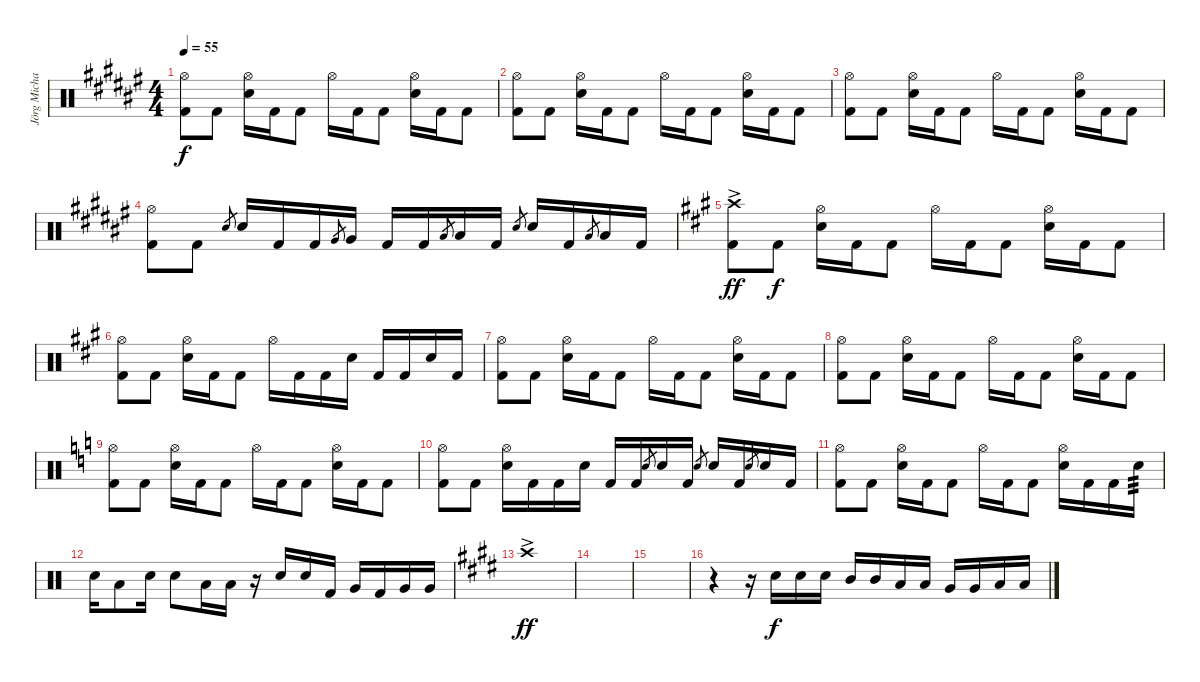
\track ("Jörg Michael" "Jörg Micha") {instrument percussion}
\staff {score}
\articulation defaults
\ts (4 4)
\tempo 55
\clef neutral
\ks f#
("Hi-Hat (open)" "Kick (hit) 2").8{dy f} "Kick (hit) 2".8 ("Hi-Hat (open)" "Electric Snare (hit)").16 "Kick (hit) 2".16 "Kick (hit) 2".8 "Hi-Hat (open)".16 "Kick (hit) 2".16 "Kick (hit) 2".8 ("Hi-Hat (open)" "Electric Snare (hit)").16 "Kick (hit) 2".16 "Kick (hit) 2".8 |
("Hi-Hat (open)" "Kick (hit) 2").8 "Kick (hit) 2".8 ("Hi-Hat (open)" "Electric Snare (hit)").16 "Kick (hit) 2".16 "Kick (hit) 2".8 "Hi-Hat (open)".16 "Kick (hit) 2".16 "Kick (hit) 2".8 ("Hi-Hat (open)" "Electric Snare (hit)").16 "Kick (hit) 2".16 "Kick (hit) 2".8 |
("Hi-Hat (open)" "Kick (hit) 2").8 "Kick (hit) 2".8 ("Hi-Hat (open)" "Electric Snare (hit)").16 "Kick (hit) 2".16 "Kick (hit) 2".8 "Hi-Hat (open)".16 "Kick (hit) 2".16 "Kick (hit) 2".8 ("Hi-Hat (open)" "Electric Snare (hit)").16 "Kick (hit) 2".16 "Kick (hit) 2".8 |
("Hi-Hat (open)" "Kick (hit) 2").8 "Kick (hit) 2".8 "Electric Snare (hit)".8{gr} "Electric Snare (hit)".16 "Kick (hit) 2".16 "Kick (hit) 2".16 "Very Low Tom (hit)".8{gr} "Very Low Tom (hit)".16 "Kick (hit) 2".16 "Kick (hit) 2".16 "Low Floor Tom (hit)".8{gr} "Low Floor Tom (hit)".16 "Kick (hit) 2".16 "Electric Snare (hit)".8{gr} "Electric Snare (hit)".16 "Kick (hit) 2".16 "Low Tom (hit)".8{gr} "Low Tom (hit)".16 "Kick (hit) 2".16 |
\ks a
("Crash high (hit)"{ac} "Kick (hit) 2"{ac}).8{dy ff} "Kick (hit) 2".8{dy f} ("Hi-Hat (open)" "Electric Snare (hit)").16 "Kick (hit) 2".16 "Kick (hit) 2".8 "Hi-Hat (open)".16 "Kick (hit) 2".16 "Kick (hit) 2".8 ("Hi-Hat (open)" "Electric Snare (hit)").16 "Kick (hit) 2".16 "Kick (hit) 2".8 |
("Hi-Hat (open)" "Kick (hit) 2").8 "Kick (hit) 2".8 ("Hi-Hat (open)" "Electric Snare (hit)").16 "Kick (hit) 2".16 "Kick (hit) 2".8 "Hi-Hat (open)".16 "Kick (hit) 2".16 "Kick (hit) 2".16 "Electric Snare (hit)".16 "Kick (hit) 2".16 "Kick (hit) 2".16 "Electric Snare (hit)".16 "Kick (hit) 2".16 |
("Hi-Hat (open)" "Kick (hit) 2").8 "Kick (hit) 2".8 ("Hi-Hat (open)" "Electric Snare (hit)").16 "Kick (hit) 2".16 "Kick (hit) 2".8 "Hi-Hat (open)".16 "Kick (hit) 2".16 "Kick (hit) 2".8 ("Hi-Hat (open)" "Electric Snare (hit)").16 "Kick (hit) 2".16 "Kick (hit) 2".8 |
("Hi-Hat (open)" "Kick (hit) 2").8 "Kick (hit) 2".8 ("Hi-Hat (open)" "Electric Snare (hit)").16 "Kick (hit) 2".16 "Kick (hit) 2".8 "Hi-Hat (open)".16 "Kick (hit) 2".16 "Kick (hit) 2".8 ("Hi-Hat (open)" "Electric Snare (hit)").16 "Kick (hit) 2".16 "Kick (hit) 2".8 |
\ks c
("Hi-Hat (open)" "Kick (hit) 2").8 "Kick (hit) 2".8 ("Hi-Hat (open)" "Electric Snare (hit)").16 "Kick (hit) 2".16 "Kick (hit) 2".8 "Hi-Hat (open)".16 "Kick (hit) 2".16 "Kick (hit) 2".8 ("Hi-Hat (open)" "Electric Snare (hit)").16 "Kick (hit) 2".16 "Kick (hit) 2".8 |
("Hi-Hat (open)" "Kick (hit) 2").8 "Kick (hit) 2".8 ("Hi-Hat (open)" "Electric Snare (hit)").16 "Kick (hit) 2".16 "Kick (hit) 2".16 "Electric Snare (hit)".16 "Kick (hit) 2".16 "Kick (hit) 2".16 "Electric Snare (hit)".8{gr} "Electric Snare (hit)".16 "Kick (hit) 2".16 "Electric Snare (hit)".8{gr} "Electric Snare (hit)".16 "Kick (hit) 2".16 "Electric Snare (hit)".8{gr} "Electric Snare (hit)".16 "Kick (hit) 2".16 |
("Hi-Hat (open)" "Kick (hit) 2").8 "Kick (hit) 2".8 ("Hi-Hat (open)" "Electric Snare (hit)").16 "Kick (hit) 2".16 "Kick (hit) 2".8 "Hi-Hat (open)".16 "Kick (hit) 2".16 "Kick (hit) 2".8 ("Hi-Hat (open)" "Electric Snare (hit)").16 "Kick (hit) 2".16 "Kick (hit) 2".16 "Electric Snare (hit)".16{tp 3} |
"Electric Snare (hit)".16 "Low Tom (hit)".8 "Electric Snare (hit)".16 "Electric Snare (hit)".8 "Low Tom (hit)".16 "Low Tom (hit)".16 r.16 "Electric Snare (hit)".16 "Electric Snare (hit)".16 "Kick (hit) 2".16 "Very Low Tom (hit)".16 "Kick (hit) 2".16 "Very Low Tom (hit)".16 "Very Low Tom (hit)".16 |
\ks e "Crash high (hit)"{ac}.1{dy ff}
|
|
|
r.4 r.16 "Electric Snare (hit)".16{dy f} "Electric Snare (hit)".16 "Electric Snare (hit)".16 "Mid Tom (hit)".16 "Mid Tom (hit)".16 "Low Tom (hit)".16 "Low Tom (hit)".16 "Very Low Tom (hit)".16 "Very Low Tom (hit)".16 "Low Floor Tom (hit)".16 "Low Floor Tom (hit)".16
